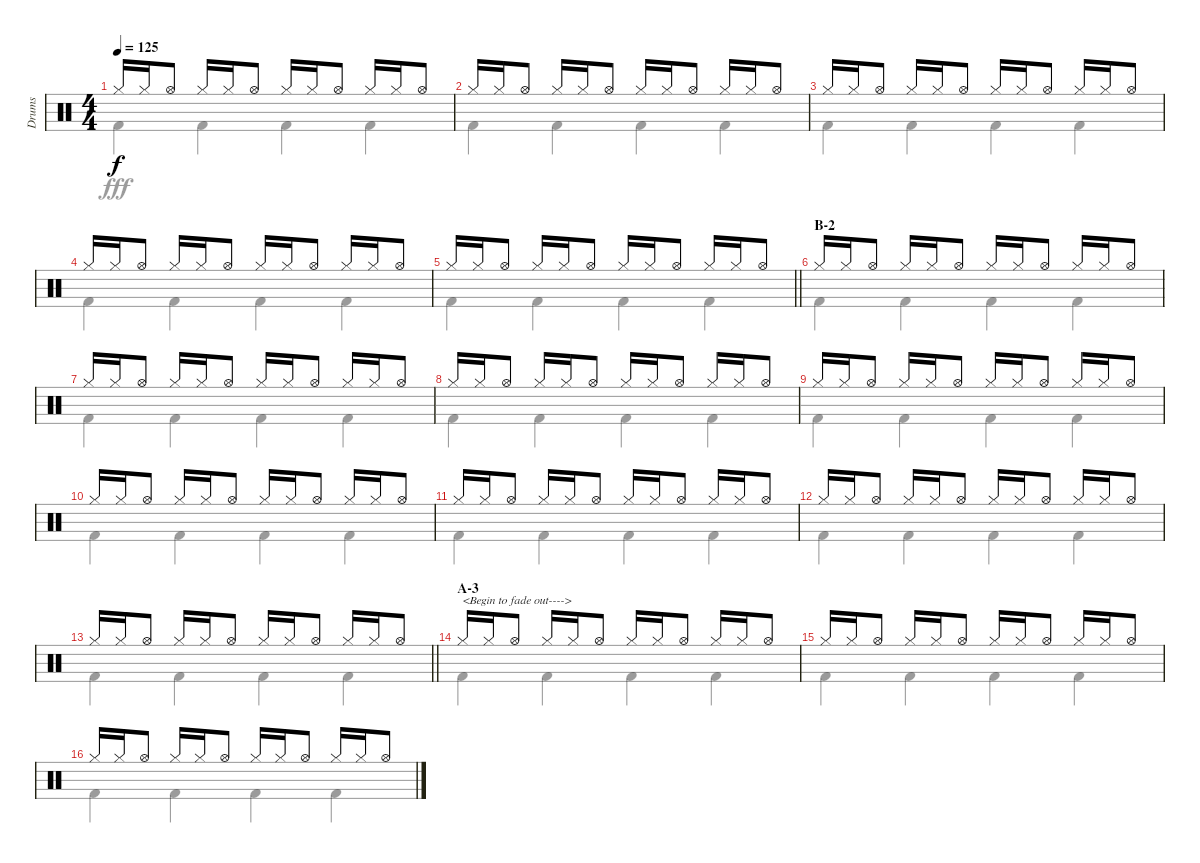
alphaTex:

\track ("Drums" "Drums") {instrument percussion}
\staff {score}
\articulation defaults
\voice
\ts (4 4)
\tempo 125
\clef neutral
\ks c "Hi-Hat (closed)".16{dy f} "Hi-Hat (closed)".16 "Hi-Hat (open)".8 "Hi-Hat (closed)".16 "Hi-Hat (closed)".16 "Hi-Hat (open)".8 "Hi-Hat (closed)".16 "Hi-Hat (closed)".16 "Hi-Hat (open)".8 "Hi-Hat (closed)".16 "Hi-Hat (closed)".16 "Hi-Hat (open)".8
|
"Hi-Hat (closed)".16 "Hi-Hat (closed)".16 "Hi-Hat (open)".8 "Hi-Hat (closed)".16 "Hi-Hat (closed)".16 "Hi-Hat (open)".8 "Hi-Hat (closed)".16 "Hi-Hat (closed)".16 "Hi-Hat (open)".8 "Hi-Hat (closed)".16 "Hi-Hat (closed)".16 "Hi-Hat (open)".8 |
"Hi-Hat (closed)".16 "Hi-Hat (closed)".16 "Hi-Hat (open)".8 "Hi-Hat (closed)".16 "Hi-Hat (closed)".16 "Hi-Hat (open)".8 "Hi-Hat (closed)".16 "Hi-Hat (closed)".16 "Hi-Hat (open)".8 "Hi-Hat (closed)".16 "Hi-Hat (closed)".16 "Hi-Hat (open)".8 |
"Hi-Hat (closed)".16 "Hi-Hat (closed)".16 "Hi-Hat (open)".8 "Hi-Hat (closed)".16 "Hi-Hat (closed)".16 "Hi-Hat (open)".8 "Hi-Hat (closed)".16 "Hi-Hat (closed)".16 "Hi-Hat (open)".8 "Hi-Hat (closed)".16 "Hi-Hat (closed)".16 "Hi-Hat (open)".8 |
\barLineRight lightlight "Hi-Hat (closed)".16 "Hi-Hat (closed)".16 "Hi-Hat (open)".8 "Hi-Hat (closed)".16 "Hi-Hat (closed)".16 "Hi-Hat (open)".8 "Hi-Hat (closed)".16 "Hi-Hat (closed)".16 "Hi-Hat (open)".8 "Hi-Hat (closed)".16 "Hi-Hat (closed)".16 "Hi-Hat (open)".8
|
\section ("" "B-2")
"Hi-Hat (closed)".16 "Hi-Hat (closed)".16 "Hi-Hat (open)".8 "Hi-Hat (closed)".16 "Hi-Hat (closed)".16 "Hi-Hat (open)".8 "Hi-Hat (closed)".16 "Hi-Hat (closed)".16 "Hi-Hat (open)".8 "Hi-Hat (closed)".16 "Hi-Hat (closed)".16 "Hi-Hat (open)".8 |
"Hi-Hat (closed)".16 "Hi-Hat (closed)".16 "Hi-Hat (open)".8 "Hi-Hat (closed)".16 "Hi-Hat (closed)".16 "Hi-Hat (open)".8 "Hi-Hat (closed)".16 "Hi-Hat (closed)".16 "Hi-Hat (open)".8 "Hi-Hat (closed)".16 "Hi-Hat (closed)".16 "Hi-Hat (open)".8 |
"Hi-Hat (closed)".16 "Hi-Hat (closed)".16 "Hi-Hat (open)".8 "Hi-Hat (closed)".16 "Hi-Hat (closed)".16 "Hi-Hat (open)".8 "Hi-Hat (closed)".16 "Hi-Hat (closed)".16 "Hi-Hat (open)".8 "Hi-Hat (closed)".16 "Hi-Hat (closed)".16 "Hi-Hat (open)".8 |
"Hi-Hat (closed)".16 "Hi-Hat (closed)".16 "Hi-Hat (open)".8 "Hi-Hat (closed)".16 "Hi-Hat (closed)".16 "Hi-Hat (open)".8 "Hi-Hat (closed)".16 "Hi-Hat (closed)".16 "Hi-Hat (open)".8 "Hi-Hat (closed)".16 "Hi-Hat (closed)".16 "Hi-Hat (open)".8 |
"Hi-Hat (closed)".16 "Hi-Hat (closed)".16 "Hi-Hat (open)".8 "Hi-Hat (closed)".16 "Hi-Hat (closed)".16 "Hi-Hat (open)".8 "Hi-Hat (closed)".16 "Hi-Hat (closed)".16 "Hi-Hat (open)".8 "Hi-Hat (closed)".16 "Hi-Hat (closed)".16 "Hi-Hat (open)".8 |
"Hi-Hat (closed)".16 "Hi-Hat (closed)".16 "Hi-Hat (open)".8 "Hi-Hat (closed)".16 "Hi-Hat (closed)".16 "Hi-Hat (open)".8 "Hi-Hat (closed)".16 "Hi-Hat (closed)".16 "Hi-Hat (open)".8 "Hi-Hat (closed)".16 "Hi-Hat (closed)".16 "Hi-Hat (open)".8 |
"Hi-Hat (closed)".16 "Hi-Hat (closed)".16 "Hi-Hat (open)".8 "Hi-Hat (closed)".16 "Hi-Hat (closed)".16 "Hi-Hat (open)".8 "Hi-Hat (closed)".16 "Hi-Hat (closed)".16 "Hi-Hat (open)".8 "Hi-Hat (closed)".16 "Hi-Hat (closed)".16 "Hi-Hat (open)".8 |
\barLineRight lightlight "Hi-Hat (closed)".16 "Hi-Hat (closed)".16 "Hi-Hat (open)".8 "Hi-Hat (closed)".16 "Hi-Hat (closed)".16 "Hi-Hat (open)".8 "Hi-Hat (closed)".16 "Hi-Hat (closed)".16 "Hi-Hat (open)".8 "Hi-Hat (closed)".16 "Hi-Hat (closed)".16 "Hi-Hat (open)".8
|
\section ("" "A-3")
"Hi-Hat (closed)".16{txt "<Begin to fade out---->"} "Hi-Hat (closed)".16 "Hi-Hat (open)".8 "Hi-Hat (closed)".16 "Hi-Hat (closed)".16 "Hi-Hat (open)".8 "Hi-Hat (closed)".16 "Hi-Hat (closed)".16 "Hi-Hat (open)".8 "Hi-Hat (closed)".16 "Hi-Hat (closed)".16 "Hi-Hat (open)".8 |
"Hi-Hat (closed)".16 "Hi-Hat (closed)".16 "Hi-Hat (open)".8 "Hi-Hat (closed)".16 "Hi-Hat (closed)".16 "Hi-Hat (open)".8 "Hi-Hat (closed)".16 "Hi-Hat (closed)".16 "Hi-Hat (open)".8 "Hi-Hat (closed)".16 "Hi-Hat (closed)".16 "Hi-Hat (open)".8 |
"Hi-Hat (closed)".16 "Hi-Hat (closed)".16 "Hi-Hat (open)".8 "Hi-Hat (closed)".16 "Hi-Hat (closed)".16 "Hi-Hat (open)".8 "Hi-Hat (closed)".16 "Hi-Hat (closed)".16 "Hi-Hat (open)".8 "Hi-Hat (closed)".16 "Hi-Hat (closed)".16 "Hi-Hat (open)".8
\voice
\clef neutral
\ottava regular
\simile none
\ks c "Kick (hit) 2".4{dy fff} "Kick (hit) 2".4 "Kick (hit) 2".4 "Kick (hit) 2".4
|
"Kick (hit) 2".4 "Kick (hit) 2".4 "Kick (hit) 2".4 "Kick (hit) 2".4 |
"Kick (hit) 2".4 "Kick (hit) 2".4 "Kick (hit) 2".4 "Kick (hit) 2".4 |
"Kick (hit) 2".4 "Kick (hit) 2".4 "Kick (hit) 2".4 "Kick (hit) 2".4 |
\barLineRight lightlight "Kick (hit) 2".4 "Kick (hit) 2".4 "Kick (hit) 2".4 "Kick (hit) 2".4
|
"Kick (hit) 2".4 "Kick (hit) 2".4 "Kick (hit) 2".4 "Kick (hit) 2".4 |
"Kick (hit) 2".4 "Kick (hit) 2".4 "Kick (hit) 2".4 "Kick (hit) 2".4 |
"Kick (hit) 2".4 "Kick (hit) 2".4 "Kick (hit) 2".4 "Kick (hit) 2".4 |
"Kick (hit) 2".4 "Kick (hit) 2".4 "Kick (hit) 2".4 "Kick (hit) 2".4 |
"Kick (hit) 2".4 "Kick (hit) 2".4 "Kick (hit) 2".4 "Kick (hit) 2".4 |
"Kick (hit) 2".4 "Kick (hit) 2".4 "Kick (hit) 2".4 "Kick (hit) 2".4 |
"Kick (hit) 2".4 "Kick (hit) 2".4 "Kick (hit) 2".4 "Kick (hit) 2".4 |
\barLineRight lightlight "Kick (hit) 2".4 "Kick (hit) 2".4 "Kick (hit) 2".4 "Kick (hit) 2".4
|
"Kick (hit) 2".4 "Kick (hit) 2".4 "Kick (hit) 2".4 "Kick (hit) 2".4 |
"Kick (hit) 2".4 "Kick (hit) 2".4 "Kick (hit) 2".4 "Kick (hit) 2".4 |
"Kick (hit) 2".4 "Kick (hit) 2".4 "Kick (hit) 2".4 "Kick (hit) 2".4
